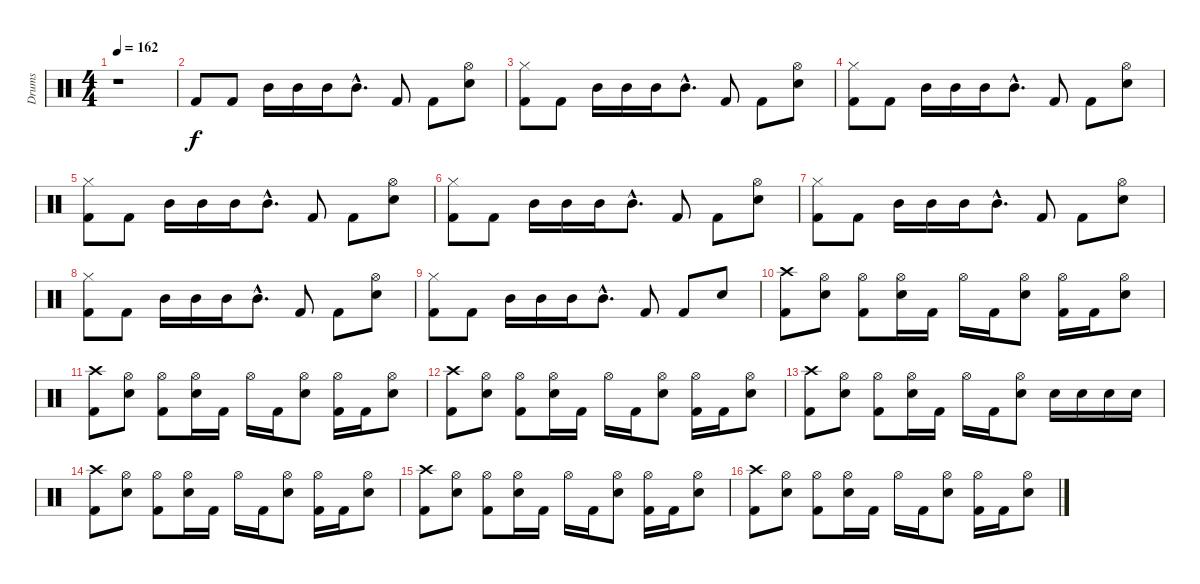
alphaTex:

\track ("Drums" "Drums") {instrument percussion}
\staff {score}
\articulation defaults
\ts (4 4)
\tempo 162
\clef neutral
\ks c
r.1{dy f} |
"Kick (hit) 2".8 "Kick (hit) 2".8 "Mid Tom (hit)".16 "Mid Tom (hit)".16 "Mid Tom (hit)".16 "Mid Tom (hit)"{hac}.8{d} "Kick (hit) 2".8 "Kick (hit) 2".8 ("Snare (hit) 2" "Hi-Hat (open)").8 |
("Kick (hit) 2" "Hi-Hat (closed)").8 "Kick (hit) 2".8 "Mid Tom (hit)".16 "Mid Tom (hit)".16 "Mid Tom (hit)".16 "Mid Tom (hit)"{hac}.8{d} "Kick (hit) 2".8 "Kick (hit) 2".8 ("Snare (hit) 2" "Hi-Hat (open)").8 |
("Kick (hit) 2" "Hi-Hat (closed)").8 "Kick (hit) 2".8 "Mid Tom (hit)".16 "Mid Tom (hit)".16 "Mid Tom (hit)".16 "Mid Tom (hit)"{hac}.8{d} "Kick (hit) 2".8 "Kick (hit) 2".8 ("Snare (hit) 2" "Hi-Hat (open)").8 |
("Kick (hit) 2" "Hi-Hat (closed)").8 "Kick (hit) 2".8 "Mid Tom (hit)".16 "Mid Tom (hit)".16 "Mid Tom (hit)".16 "Mid Tom (hit)"{hac}.8{d} "Kick (hit) 2".8 "Kick (hit) 2".8 ("Snare (hit) 2" "Hi-Hat (open)").8 |
("Kick (hit) 2" "Hi-Hat (closed)").8 "Kick (hit) 2".8 "Mid Tom (hit)".16 "Mid Tom (hit)".16 "Mid Tom (hit)".16 "Mid Tom (hit)"{hac}.8{d} "Kick (hit) 2".8 "Kick (hit) 2".8 ("Snare (hit) 2" "Hi-Hat (open)").8 |
("Kick (hit) 2" "Hi-Hat (closed)").8 "Kick (hit) 2".8 "Mid Tom (hit)".16 "Mid Tom (hit)".16 "Mid Tom (hit)".16 "Mid Tom (hit)"{hac}.8{d} "Kick (hit) 2".8 "Kick (hit) 2".8 ("Snare (hit) 2" "Hi-Hat (open)").8 |
("Kick (hit) 2" "Hi-Hat (closed)").8 "Kick (hit) 2".8 "Mid Tom (hit)".16 "Mid Tom (hit)".16 "Mid Tom (hit)".16 "Mid Tom (hit)"{hac}.8{d} "Kick (hit) 2".8 "Kick (hit) 2".8 ("Snare (hit) 2" "Hi-Hat (open)").8 |
("Kick (hit) 2" "Hi-Hat (closed)").8 "Kick (hit) 2".8 "Mid Tom (hit)".16 "Mid Tom (hit)".16 "Mid Tom (hit)".16 "Mid Tom (hit)"{hac}.8{d} "Kick (hit) 2".8 "Kick (hit) 2".8 "Snare (hit) 2".8 |
("Kick (hit) 2" "Crash high (hit)").8 ("Snare (hit) 2" "Hi-Hat (open)").8 ("Kick (hit) 2" "Hi-Hat (open)").8 ("Snare (hit) 2" "Hi-Hat (open)").16 "Kick (hit) 2".16 "Hi-Hat (open)".16 "Kick (hit) 2".16 ("Snare (hit) 2" "Hi-Hat (open)").8 ("Kick (hit) 2" "Hi-Hat (open)").16 "Kick (hit) 2".16 ("Snare (hit) 2" "Hi-Hat (open)").8 |
("Kick (hit) 2" "Crash high (hit)").8 ("Snare (hit) 2" "Hi-Hat (open)").8 ("Kick (hit) 2" "Hi-Hat (open)").8 ("Snare (hit) 2" "Hi-Hat (open)").16 "Kick (hit) 2".16 "Hi-Hat (open)".16 "Kick (hit) 2".16 ("Snare (hit) 2" "Hi-Hat (open)").8 ("Kick (hit) 2" "Hi-Hat (open)").16 "Kick (hit) 2".16 ("Snare (hit) 2" "Hi-Hat (open)").8 |
("Kick (hit) 2" "Crash high (hit)").8 ("Snare (hit) 2" "Hi-Hat (open)").8 ("Kick (hit) 2" "Hi-Hat (open)").8 ("Snare (hit) 2" "Hi-Hat (open)").16 "Kick (hit) 2".16 "Hi-Hat (open)".16 "Kick (hit) 2".16 ("Snare (hit) 2" "Hi-Hat (open)").8 ("Kick (hit) 2" "Hi-Hat (open)").16 "Kick (hit) 2".16 ("Snare (hit) 2" "Hi-Hat (open)").8 |
("Kick (hit) 2" "Crash high (hit)").8 ("Snare (hit) 2" "Hi-Hat (open)").8 ("Kick (hit) 2" "Hi-Hat (open)").8 ("Snare (hit) 2" "Hi-Hat (open)").16 "Kick (hit) 2".16 "Hi-Hat (open)".16 "Kick (hit) 2".16 ("Snare (hit) 2" "Hi-Hat (open)").8 "Snare (hit) 2".16 "Snare (hit) 2".16 "Snare (hit) 2".16 "Snare (hit) 2".16 |
("Kick (hit) 2" "Crash high (hit)").8 ("Snare (hit) 2" "Hi-Hat (open)").8 ("Kick (hit) 2" "Hi-Hat (open)").8 ("Snare (hit) 2" "Hi-Hat (open)").16 "Kick (hit) 2".16 "Hi-Hat (open)".16 "Kick (hit) 2".16 ("Snare (hit) 2" "Hi-Hat (open)").8 ("Kick (hit) 2" "Hi-Hat (open)").16 "Kick (hit) 2".16 ("Snare (hit) 2" "Hi-Hat (open)").8 |
("Kick (hit) 2" "Crash high (hit)").8 ("Snare (hit) 2" "Hi-Hat (open)").8 ("Kick (hit) 2" "Hi-Hat (open)").8 ("Snare (hit) 2" "Hi-Hat (open)").16 "Kick (hit) 2".16 "Hi-Hat (open)".16 "Kick (hit) 2".16 ("Snare (hit) 2" "Hi-Hat (open)").8 ("Kick (hit) 2" "Hi-Hat (open)").16 "Kick (hit) 2".16 ("Snare (hit) 2" "Hi-Hat (open)").8 |
("Kick (hit) 2" "Crash high (hit)").8 ("Snare (hit) 2" "Hi-Hat (open)").8 ("Kick (hit) 2" "Hi-Hat (open)").8 ("Snare (hit) 2" "Hi-Hat (open)").16 "Kick (hit) 2".16 "Hi-Hat (open)".16 "Kick (hit) 2".16 ("Snare (hit) 2" "Hi-Hat (open)").8 ("Kick (hit) 2" "Hi-Hat (open)").16 "Kick (hit) 2".16 ("Snare (hit) 2" "Hi-Hat (open)").8
